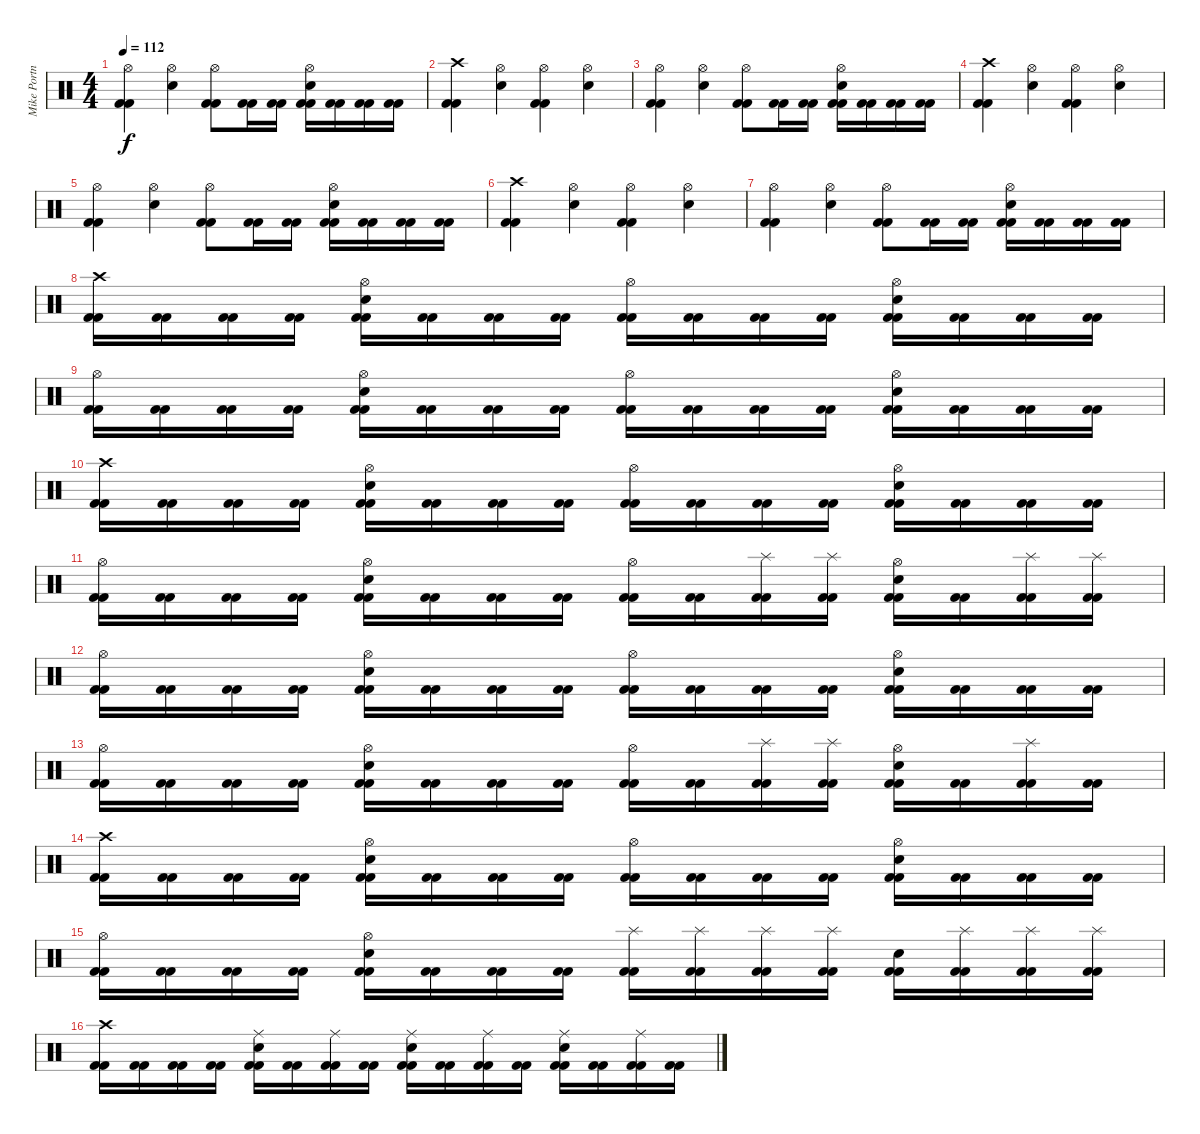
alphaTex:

\track ("Mike Portnoy - Drum" "Mike Portn") {instrument percussion}
\staff {score}
\articulation defaults
\ts (4 4)
\tempo 112
\clef neutral
\ks c
("Hi-Hat (open)" "Kick (hit) 2" "Kick (hit) 2").4{dy f} ("Hi-Hat (open)" "Snare (hit) 2").4 ("Hi-Hat (open)" "Kick (hit) 2" "Kick (hit) 2").8 ("Kick (hit) 2" "Kick (hit) 2").16 ("Kick (hit) 2" "Kick (hit) 2").16 ("Hi-Hat (open)" "Snare (hit) 2" "Kick (hit) 2" "Kick (hit) 2").16 ("Kick (hit) 2" "Kick (hit) 2").16 ("Kick (hit) 2" "Kick (hit) 2").16 ("Kick (hit) 2" "Kick (hit) 2").16 |
("Crash high (hit)" "Kick (hit) 2" "Kick (hit) 2").4 ("Hi-Hat (open)" "Snare (hit) 2").4 ("Hi-Hat (open)" "Kick (hit) 2" "Kick (hit) 2").4 ("Hi-Hat (open)" "Snare (hit) 2").4 |
("Hi-Hat (open)" "Kick (hit) 2" "Kick (hit) 2").4 ("Hi-Hat (open)" "Snare (hit) 2").4 ("Hi-Hat (open)" "Kick (hit) 2" "Kick (hit) 2").8 ("Kick (hit) 2" "Kick (hit) 2").16 ("Kick (hit) 2" "Kick (hit) 2").16 ("Hi-Hat (open)" "Snare (hit) 2" "Kick (hit) 2" "Kick (hit) 2").16 ("Kick (hit) 2" "Kick (hit) 2").16 ("Kick (hit) 2" "Kick (hit) 2").16 ("Kick (hit) 2" "Kick (hit) 2").16 |
("Crash high (hit)" "Kick (hit) 2" "Kick (hit) 2").4 ("Hi-Hat (open)" "Snare (hit) 2").4 ("Hi-Hat (open)" "Kick (hit) 2" "Kick (hit) 2").4 ("Hi-Hat (open)" "Snare (hit) 2").4 |
("Hi-Hat (open)" "Kick (hit) 2" "Kick (hit) 2").4 ("Hi-Hat (open)" "Snare (hit) 2").4 ("Hi-Hat (open)" "Kick (hit) 2" "Kick (hit) 2").8 ("Kick (hit) 2" "Kick (hit) 2").16 ("Kick (hit) 2" "Kick (hit) 2").16 ("Hi-Hat (open)" "Snare (hit) 2" "Kick (hit) 2" "Kick (hit) 2").16 ("Kick (hit) 2" "Kick (hit) 2").16 ("Kick (hit) 2" "Kick (hit) 2").16 ("Kick (hit) 2" "Kick (hit) 2").16 |
("Crash high (hit)" "Kick (hit) 2" "Kick (hit) 2").4 ("Hi-Hat (open)" "Snare (hit) 2").4 ("Hi-Hat (open)" "Kick (hit) 2" "Kick (hit) 2").4 ("Hi-Hat (open)" "Snare (hit) 2").4 |
("Hi-Hat (open)" "Kick (hit) 2" "Kick (hit) 2").4 ("Hi-Hat (open)" "Snare (hit) 2").4 ("Hi-Hat (open)" "Kick (hit) 2" "Kick (hit) 2").8 ("Kick (hit) 2" "Kick (hit) 2").16 ("Kick (hit) 2" "Kick (hit) 2").16 ("Hi-Hat (open)" "Snare (hit) 2" "Kick (hit) 2" "Kick (hit) 2").16 ("Kick (hit) 2" "Kick (hit) 2").16 ("Kick (hit) 2" "Kick (hit) 2").16 ("Kick (hit) 2" "Kick (hit) 2").16 |
("Crash high (hit)" "Kick (hit) 2" "Kick (hit) 2").16 ("Kick (hit) 2" "Kick (hit) 2").16 ("Kick (hit) 2" "Kick (hit) 2").16 ("Kick (hit) 2" "Kick (hit) 2").16 ("Hi-Hat (open)" "Snare (hit) 2" "Kick (hit) 2" "Kick (hit) 2").16 ("Kick (hit) 2" "Kick (hit) 2").16 ("Kick (hit) 2" "Kick (hit) 2").16 ("Kick (hit) 2" "Kick (hit) 2").16 ("Hi-Hat (open)" "Kick (hit) 2" "Kick (hit) 2").16 ("Kick (hit) 2" "Kick (hit) 2").16 ("Kick (hit) 2" "Kick (hit) 2").16 ("Kick (hit) 2" "Kick (hit) 2").16 ("Hi-Hat (open)" "Snare (hit) 2" "Kick (hit) 2" "Kick (hit) 2").16 ("Kick (hit) 2" "Kick (hit) 2").16 ("Kick (hit) 2" "Kick (hit) 2").16 ("Kick (hit) 2" "Kick (hit) 2").16 |
("Hi-Hat (open)" "Kick (hit) 2" "Kick (hit) 2").16 ("Kick (hit) 2" "Kick (hit) 2").16 ("Kick (hit) 2" "Kick (hit) 2").16 ("Kick (hit) 2" "Kick (hit) 2").16 ("Hi-Hat (open)" "Snare (hit) 2" "Kick (hit) 2" "Kick (hit) 2").16 ("Kick (hit) 2" "Kick (hit) 2").16 ("Kick (hit) 2" "Kick (hit) 2").16 ("Kick (hit) 2" "Kick (hit) 2").16 ("Hi-Hat (open)" "Kick (hit) 2" "Kick (hit) 2").16 ("Kick (hit) 2" "Kick (hit) 2").16 ("Kick (hit) 2" "Kick (hit) 2").16 ("Kick (hit) 2" "Kick (hit) 2").16 ("Hi-Hat (open)" "Snare (hit) 2" "Kick (hit) 2" "Kick (hit) 2").16 ("Kick (hit) 2" "Kick (hit) 2").16 ("Kick (hit) 2" "Kick (hit) 2").16 ("Kick (hit) 2" "Kick (hit) 2").16 |
("Crash high (hit)" "Kick (hit) 2" "Kick (hit) 2").16 ("Kick (hit) 2" "Kick (hit) 2").16 ("Kick (hit) 2" "Kick (hit) 2").16 ("Kick (hit) 2" "Kick (hit) 2").16 ("Hi-Hat (open)" "Snare (hit) 2" "Kick (hit) 2" "Kick (hit) 2").16 ("Kick (hit) 2" "Kick (hit) 2").16 ("Kick (hit) 2" "Kick (hit) 2").16 ("Kick (hit) 2" "Kick (hit) 2").16 ("Hi-Hat (open)" "Kick (hit) 2" "Kick (hit) 2").16 ("Kick (hit) 2" "Kick (hit) 2").16 ("Kick (hit) 2" "Kick (hit) 2").16 ("Kick (hit) 2" "Kick (hit) 2").16 ("Hi-Hat (open)" "Snare (hit) 2" "Kick (hit) 2" "Kick (hit) 2").16 ("Kick (hit) 2" "Kick (hit) 2").16 ("Kick (hit) 2" "Kick (hit) 2").16 ("Kick (hit) 2" "Kick (hit) 2").16 |
("Hi-Hat (open)" "Kick (hit) 2" "Kick (hit) 2").16 ("Kick (hit) 2" "Kick (hit) 2").16 ("Kick (hit) 2" "Kick (hit) 2").16 ("Kick (hit) 2" "Kick (hit) 2").16 ("Hi-Hat (open)" "Snare (hit) 2" "Kick (hit) 2" "Kick (hit) 2").16 ("Kick (hit) 2" "Kick (hit) 2").16 ("Kick (hit) 2" "Kick (hit) 2").16 ("Kick (hit) 2" "Kick (hit) 2").16 ("Hi-Hat (open)" "Kick (hit) 2" "Kick (hit) 2").16 ("Kick (hit) 2" "Kick (hit) 2").16 ("Splash (hit)" "Kick (hit) 2" "Kick (hit) 2").16 ("Splash (hit)" "Kick (hit) 2" "Kick (hit) 2").16 ("Hi-Hat (open)" "Snare (hit) 2" "Kick (hit) 2" "Kick (hit) 2").16 ("Kick (hit) 2" "Kick (hit) 2").16 ("Splash (hit)" "Kick (hit) 2" "Kick (hit) 2").16 ("Splash (hit)" "Kick (hit) 2" "Kick (hit) 2").16 |
("Hi-Hat (open)" "Kick (hit) 2" "Kick (hit) 2").16 ("Kick (hit) 2" "Kick (hit) 2").16 ("Kick (hit) 2" "Kick (hit) 2").16 ("Kick (hit) 2" "Kick (hit) 2").16 ("Hi-Hat (open)" "Snare (hit) 2" "Kick (hit) 2" "Kick (hit) 2").16 ("Kick (hit) 2" "Kick (hit) 2").16 ("Kick (hit) 2" "Kick (hit) 2").16 ("Kick (hit) 2" "Kick (hit) 2").16 ("Hi-Hat (open)" "Kick (hit) 2" "Kick (hit) 2").16 ("Kick (hit) 2" "Kick (hit) 2").16 ("Kick (hit) 2" "Kick (hit) 2").16 ("Kick (hit) 2" "Kick (hit) 2").16 ("Hi-Hat (open)" "Snare (hit) 2" "Kick (hit) 2" "Kick (hit) 2").16 ("Kick (hit) 2" "Kick (hit) 2").16 ("Kick (hit) 2" "Kick (hit) 2").16 ("Kick (hit) 2" "Kick (hit) 2").16 |
("Hi-Hat (open)" "Kick (hit) 2" "Kick (hit) 2").16 ("Kick (hit) 2" "Kick (hit) 2").16 ("Kick (hit) 2" "Kick (hit) 2").16 ("Kick (hit) 2" "Kick (hit) 2").16 ("Hi-Hat (open)" "Snare (hit) 2" "Kick (hit) 2" "Kick (hit) 2").16 ("Kick (hit) 2" "Kick (hit) 2").16 ("Kick (hit) 2" "Kick (hit) 2").16 ("Kick (hit) 2" "Kick (hit) 2").16 ("Hi-Hat (open)" "Kick (hit) 2" "Kick (hit) 2").16 ("Kick (hit) 2" "Kick (hit) 2").16 ("Splash (hit)" "Kick (hit) 2" "Kick (hit) 2").16 ("Splash (hit)" "Kick (hit) 2" "Kick (hit) 2").16 ("Hi-Hat (open)" "Snare (hit) 2" "Kick (hit) 2" "Kick (hit) 2").16 ("Kick (hit) 2" "Kick (hit) 2").16 ("Splash (hit)" "Kick (hit) 2" "Kick (hit) 2").16 ("Kick (hit) 2" "Kick (hit) 2").16 |
("Crash high (hit)" "Kick (hit) 2" "Kick (hit) 2").16 ("Kick (hit) 2" "Kick (hit) 2").16 ("Kick (hit) 2" "Kick (hit) 2").16 ("Kick (hit) 2" "Kick (hit) 2").16 ("Hi-Hat (open)" "Snare (hit) 2" "Kick (hit) 2" "Kick (hit) 2").16 ("Kick (hit) 2" "Kick (hit) 2").16 ("Kick (hit) 2" "Kick (hit) 2").16 ("Kick (hit) 2" "Kick (hit) 2").16 ("Hi-Hat (open)" "Kick (hit) 2" "Kick (hit) 2").16 ("Kick (hit) 2" "Kick (hit) 2").16 ("Kick (hit) 2" "Kick (hit) 2").16 ("Kick (hit) 2" "Kick (hit) 2").16 ("Hi-Hat (open)" "Snare (hit) 2" "Kick (hit) 2" "Kick (hit) 2").16 ("Kick (hit) 2" "Kick (hit) 2").16 ("Kick (hit) 2" "Kick (hit) 2").16 ("Kick (hit) 2" "Kick (hit) 2").16 |
("Hi-Hat (open)" "Kick (hit) 2" "Kick (hit) 2").16 ("Kick (hit) 2" "Kick (hit) 2").16 ("Kick (hit) 2" "Kick (hit) 2").16 ("Kick (hit) 2" "Kick (hit) 2").16 ("Hi-Hat (open)" "Snare (hit) 2" "Kick (hit) 2" "Kick (hit) 2").16 ("Kick (hit) 2" "Kick (hit) 2").16 ("Kick (hit) 2" "Kick (hit) 2").16 ("Kick (hit) 2" "Kick (hit) 2").16 ("Splash (hit)" "Kick (hit) 2" "Kick (hit) 2").16 ("Splash (hit)" "Kick (hit) 2" "Kick (hit) 2").16 ("Splash (hit)" "Kick (hit) 2" "Kick (hit) 2").16 ("Splash (hit)" "Kick (hit) 2" "Kick (hit) 2").16 ("Snare (hit) 2" "Kick (hit) 2" "Kick (hit) 2").16 ("Splash (hit)" "Kick (hit) 2" "Kick (hit) 2").16 ("Splash (hit)" "Kick (hit) 2" "Kick (hit) 2").16 ("Splash (hit)" "Kick (hit) 2" "Kick (hit) 2").16 |
("Crash high (hit)" "Kick (hit) 2" "Kick (hit) 2").16 ("Kick (hit) 2" "Kick (hit) 2").16 ("Kick (hit) 2" "Kick (hit) 2").16 ("Kick (hit) 2" "Kick (hit) 2").16 ("Ride (middle)" "Snare (hit) 2" "Kick (hit) 2" "Kick (hit) 2").16 ("Kick (hit) 2" "Kick (hit) 2").16 ("Ride (middle)" "Kick (hit) 2" "Kick (hit) 2").16 ("Kick (hit) 2" "Kick (hit) 2").16 ("Ride (middle)" "Snare (hit) 2" "Kick (hit) 2" "Kick (hit) 2").16 ("Kick (hit) 2" "Kick (hit) 2").16 ("Ride (middle)" "Kick (hit) 2" "Kick (hit) 2").16 ("Kick (hit) 2" "Kick (hit) 2").16 ("Ride (middle)" "Snare (hit) 2" "Kick (hit) 2" "Kick (hit) 2").16 ("Kick (hit) 2" "Kick (hit) 2").16 ("Ride (middle)" "Kick (hit) 2" "Kick (hit) 2").16 ("Kick (hit) 2" "Kick (hit) 2").16
